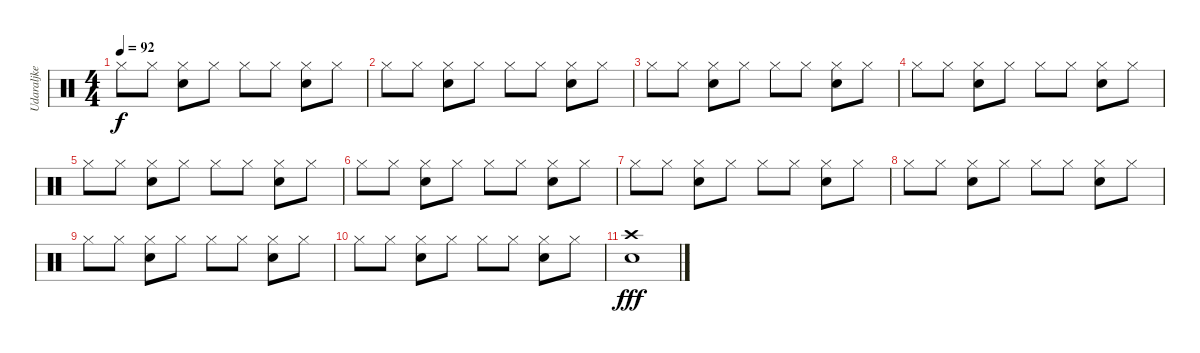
\track ("Udaraljke" "Udaraljke") {instrument percussion}
\staff {score}
\articulation defaults
\ts (4 4)
\tempo 92
\clef neutral
\ks c "Hi-Hat (closed)".8{dy f} "Hi-Hat (closed)".8
("Hi-Hat (closed)" "Electric Snare (hit)").8 "Hi-Hat (closed)".8 "Hi-Hat (closed)".8 "Hi-Hat (closed)".8 ("Hi-Hat (closed)" "Electric Snare (hit)").8 "Hi-Hat (closed)".8 |
"Hi-Hat (closed)".8 "Hi-Hat (closed)".8 ("Hi-Hat (closed)" "Electric Snare (hit)").8 "Hi-Hat (closed)".8 "Hi-Hat (closed)".8 "Hi-Hat (closed)".8 ("Hi-Hat (closed)" "Electric Snare (hit)").8 "Hi-Hat (closed)".8 |
"Hi-Hat (closed)".8 "Hi-Hat (closed)".8 ("Hi-Hat (closed)" "Electric Snare (hit)").8 "Hi-Hat (closed)".8 "Hi-Hat (closed)".8 "Hi-Hat (closed)".8 ("Hi-Hat (closed)" "Electric Snare (hit)").8 "Hi-Hat (closed)".8 |
"Hi-Hat (closed)".8 "Hi-Hat (closed)".8 ("Hi-Hat (closed)" "Electric Snare (hit)").8 "Hi-Hat (closed)".8 "Hi-Hat (closed)".8 "Hi-Hat (closed)".8 ("Hi-Hat (closed)" "Electric Snare (hit)").8 "Hi-Hat (closed)".8 |
"Hi-Hat (closed)".8 "Hi-Hat (closed)".8 ("Hi-Hat (closed)" "Electric Snare (hit)").8 "Hi-Hat (closed)".8 "Hi-Hat (closed)".8 "Hi-Hat (closed)".8 ("Hi-Hat (closed)" "Electric Snare (hit)").8 "Hi-Hat (closed)".8 |
"Hi-Hat (closed)".8 "Hi-Hat (closed)".8 ("Hi-Hat (closed)" "Electric Snare (hit)").8 "Hi-Hat (closed)".8 "Hi-Hat (closed)".8 "Hi-Hat (closed)".8 ("Hi-Hat (closed)" "Electric Snare (hit)").8 "Hi-Hat (closed)".8 |
"Hi-Hat (closed)".8 "Hi-Hat (closed)".8 ("Hi-Hat (closed)" "Electric Snare (hit)").8 "Hi-Hat (closed)".8 "Hi-Hat (closed)".8 "Hi-Hat (closed)".8 ("Hi-Hat (closed)" "Electric Snare (hit)").8 "Hi-Hat (closed)".8 |
"Hi-Hat (closed)".8 "Hi-Hat (closed)".8 ("Hi-Hat (closed)" "Electric Snare (hit)").8 "Hi-Hat (closed)".8 "Hi-Hat (closed)".8 "Hi-Hat (closed)".8 ("Hi-Hat (closed)" "Electric Snare (hit)").8 "Hi-Hat (closed)".8 |
"Hi-Hat (closed)".8 "Hi-Hat (closed)".8 ("Hi-Hat (closed)" "Electric Snare (hit)").8 "Hi-Hat (closed)".8 "Hi-Hat (closed)".8 "Hi-Hat (closed)".8 ("Hi-Hat (closed)" "Electric Snare (hit)").8 "Hi-Hat (closed)".8 |
"Hi-Hat (closed)".8 "Hi-Hat (closed)".8 ("Hi-Hat (closed)" "Electric Snare (hit)").8 "Hi-Hat (closed)".8 "Hi-Hat (closed)".8 "Hi-Hat (closed)".8 ("Hi-Hat (closed)" "Electric Snare (hit)").8 "Hi-Hat (closed)".8 |
("Crash high (hit)" "Electric Snare (hit)").1{dy fff}
